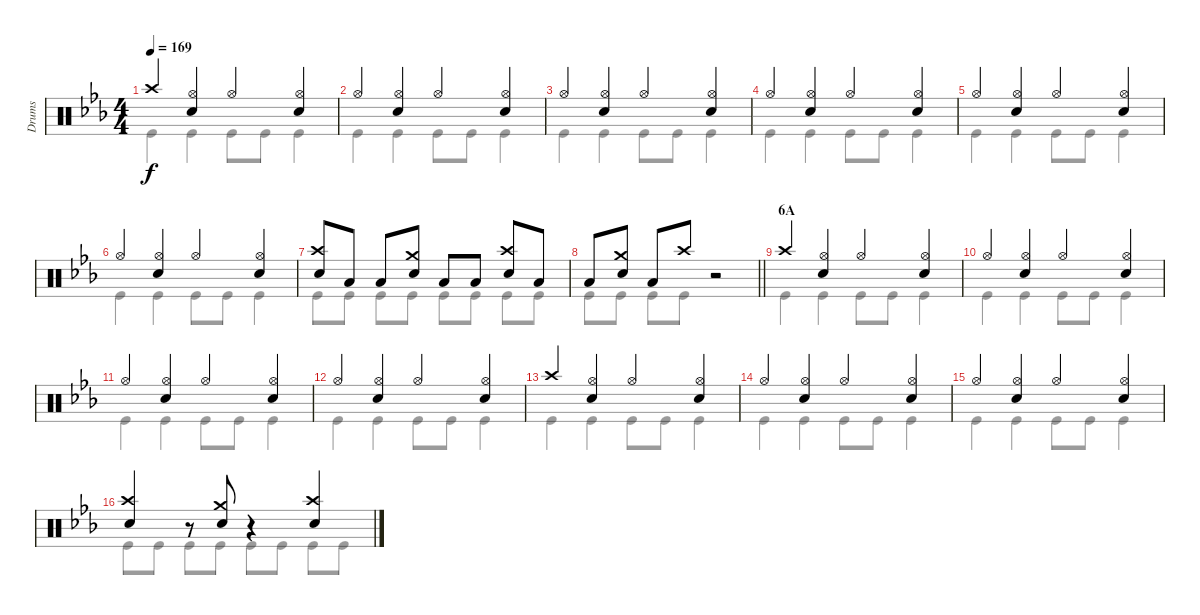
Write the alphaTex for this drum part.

\track ("Drums" "Drums") {instrument percussion}
\staff {score}
\articulation defaults
\voice
\ts (4 4)
\tempo 169
\clef neutral
\ks eb "Crash high (hit)".4{dy f}
("Hi-Hat (open)" "Snare (hit) 2").4 "Hi-Hat (open)".4 ("Hi-Hat (open)" "Snare (hit) 2").4 |
"Hi-Hat (open)".4 ("Hi-Hat (open)" "Snare (hit) 2").4 "Hi-Hat (open)".4 ("Hi-Hat (open)" "Snare (hit) 2").4 |
"Hi-Hat (open)".4 ("Hi-Hat (open)" "Snare (hit) 2").4 "Hi-Hat (open)".4 ("Hi-Hat (open)" "Snare (hit) 2").4 |
"Hi-Hat (open)".4 ("Hi-Hat (open)" "Snare (hit) 2").4 "Hi-Hat (open)".4 ("Hi-Hat (open)" "Snare (hit) 2").4 |
"Hi-Hat (open)".4 ("Hi-Hat (open)" "Snare (hit) 2").4 "Hi-Hat (open)".4 ("Hi-Hat (open)" "Snare (hit) 2").4 |
"Hi-Hat (open)".4 ("Hi-Hat (open)" "Snare (hit) 2").4 "Hi-Hat (open)".4 ("Hi-Hat (open)" "Snare (hit) 2").4 |
("Crash high (hit)" "Snare (hit) 2").8 "Low Tom (hit)".8 "Low Tom (hit)".8 ("Crash medium (hit)" "Snare (hit) 2").8 "Low Tom (hit)".8 "Low Tom (hit)".8 ("Crash high (hit)" "Snare (hit) 2").8 "Low Tom (hit)".8 |
\barLineRight lightlight "Low Tom (hit)".8
("Crash medium (hit)" "Snare (hit) 2").8 "Low Tom (hit)".8 "Crash high (hit)".8 r.2 |
\section ("" "6A")
"Crash high (hit)".4 ("Hi-Hat (open)" "Snare (hit) 2").4 "Hi-Hat (open)".4 ("Hi-Hat (open)" "Snare (hit) 2").4 |
"Hi-Hat (open)".4 ("Hi-Hat (open)" "Snare (hit) 2").4 "Hi-Hat (open)".4 ("Hi-Hat (open)" "Snare (hit) 2").4 |
"Hi-Hat (open)".4 ("Hi-Hat (open)" "Snare (hit) 2").4 "Hi-Hat (open)".4 ("Hi-Hat (open)" "Snare (hit) 2").4 |
"Hi-Hat (open)".4 ("Hi-Hat (open)" "Snare (hit) 2").4 "Hi-Hat (open)".4 ("Hi-Hat (open)" "Snare (hit) 2").4 |
"Crash high (hit)".4 ("Hi-Hat (open)" "Snare (hit) 2").4 "Hi-Hat (open)".4 ("Hi-Hat (open)" "Snare (hit) 2").4 |
"Hi-Hat (open)".4 ("Hi-Hat (open)" "Snare (hit) 2").4 "Hi-Hat (open)".4 ("Hi-Hat (open)" "Snare (hit) 2").4 |
"Hi-Hat (open)".4 ("Hi-Hat (open)" "Snare (hit) 2").4 "Hi-Hat (open)".4 ("Hi-Hat (open)" "Snare (hit) 2").4 |
("Crash high (hit)" "Snare (hit) 2").4 r.8 ("Crash medium (hit)" "Snare (hit) 2").8 r.4 ("Crash high (hit)" "Snare (hit) 2").4
\voice
\clef neutral
\ottava regular
\simile none
\ks eb "Kick (hit)".4{dy f} "Kick (hit)".4 "Kick (hit)".8 "Kick (hit)".8 "Kick (hit)".4
|
"Kick (hit)".4 "Kick (hit)".4 "Kick (hit)".8 "Kick (hit)".8 "Kick (hit)".4 |
"Kick (hit)".4 "Kick (hit)".4 "Kick (hit)".8 "Kick (hit)".8 "Kick (hit)".4 |
"Kick (hit)".4 "Kick (hit)".4 "Kick (hit)".8 "Kick (hit)".8 "Kick (hit)".4 |
"Kick (hit)".4 "Kick (hit)".4 "Kick (hit)".8 "Kick (hit)".8 "Kick (hit)".4 |
"Kick (hit)".4 "Kick (hit)".4 "Kick (hit)".8 "Kick (hit)".8 "Kick (hit)".4 |
"Kick (hit)".8 "Kick (hit)".8 "Kick (hit)".8 "Kick (hit)".8 "Kick (hit)".8 "Kick (hit)".8 "Kick (hit)".8 "Kick (hit)".8 |
\barLineRight lightlight "Kick (hit)".8 "Kick (hit)".8 "Kick (hit)".8 "Kick (hit)".8
r.2 |
"Kick (hit)".4 "Kick (hit)".4 "Kick (hit)".8 "Kick (hit)".8 "Kick (hit)".4 |
"Kick (hit)".4 "Kick (hit)".4 "Kick (hit)".8 "Kick (hit)".8 "Kick (hit)".4 |
"Kick (hit)".4 "Kick (hit)".4 "Kick (hit)".8 "Kick (hit)".8 "Kick (hit)".4 |
"Kick (hit)".4 "Kick (hit)".4 "Kick (hit)".8 "Kick (hit)".8 "Kick (hit)".4 |
"Kick (hit)".4 "Kick (hit)".4 "Kick (hit)".8 "Kick (hit)".8 "Kick (hit)".4 |
"Kick (hit)".4 "Kick (hit)".4 "Kick (hit)".8 "Kick (hit)".8 "Kick (hit)".4 |
"Kick (hit)".4 "Kick (hit)".4 "Kick (hit)".8 "Kick (hit)".8 "Kick (hit)".4 |
"Kick (hit)".8 "Kick (hit)".8 "Kick (hit)".8 "Kick (hit)".8 "Kick (hit)".8 "Kick (hit)".8 "Kick (hit)".8 "Kick (hit)".8
